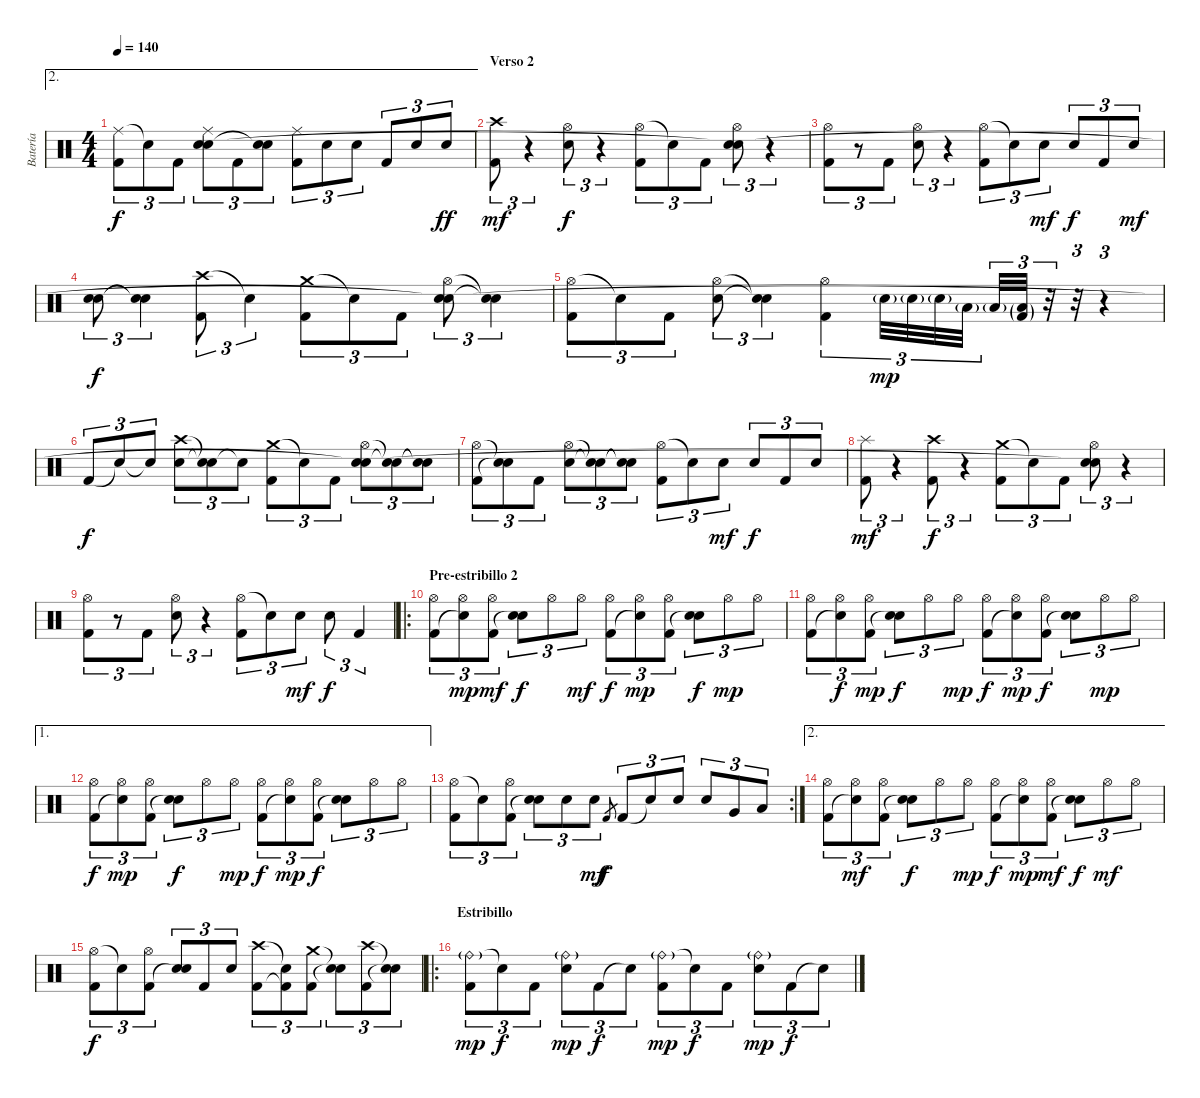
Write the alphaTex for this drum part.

\track ("Batería" "Batería") {instrument percussion}
\staff {score}
\articulation defaults
\ae 2
\ts (4 4)
\tempo 140
\clef neutral
\ks c
("Ride (middle)" "Kick (hit) 2").8{tu (3 2) dy f} "Snare (hit)"{t}.8{tu (3 2)} "Kick (hit) 2".8{tu (3 2)} ("Ride (middle)" "Snare (hit) 2" "Snare (hit)"{t}).8{tu (3 2)} "Kick (hit) 2".8{tu (3 2)} ("Snare (hit) 2" "Snare (hit)"{t}).8{tu (3 2)} ("Ride (middle)" "Kick (hit) 2").8{tu (3 2)} "Snare (hit) 2".8{tu (3 2)} "Snare (hit) 2".8{tu (3 2)} "Kick (hit) 2".8{tu (3 2)} "Snare (hit) 2".8{tu (3 2)} "Snare (hit) 2".8{tu (3 2) dy ff} |
\section ("" "Verso 2")
("Crash high (hit)" "Kick (hit) 2").8{tu (3 2) dy mf} r.4{tu (3 2)} ("Hi-Hat (open)" "Snare (hit) 2").8{tu (3 2) dy f} r.4{tu (3 2)} ("Hi-Hat (open)" "Kick (hit) 2").8{tu (3 2)} "Snare (hit)"{t}.8{tu (3 2)} "Kick (hit) 2".8{tu (3 2)} ("Hi-Hat (open)" "Snare (hit) 2" "Snare (hit)"{t}).8{tu (3 2)} r.4{tu (3 2)} |
("Hi-Hat (open)" "Kick (hit) 2").8{tu (3 2)} r.8{tu (3 2)} "Kick (hit) 2".8{tu (3 2)} ("Hi-Hat (open)" "Snare (hit) 2").8{tu (3 2)} r.4{tu (3 2)} ("Hi-Hat (open)" "Kick (hit) 2").8{tu (3 2)} "Snare (hit)"{t}.8{tu (3 2)} "Snare (hit) 2".8{tu (3 2) dy mf} "Snare (hit) 2".8{tu (3 2) dy f} "Kick (hit) 2".8{tu (3 2)} "Snare (hit) 2".8{tu (3 2) dy mf} |
("Snare (hit) 2" "Snare (hit) 2").8{tu (3 2) dy f} ("Snare (hit)"{t} "Snare (hit)"{t}).4{tu (3 2)} ("Crash high (hit)" "Kick (hit) 2").8{tu (3 2)} "Snare (hit)"{t}.4{tu (3 2)} ("Crash medium (hit)" "Kick (hit) 2").8{tu (3 2)} "Snare (hit)"{t}.8{tu (3 2)} "Kick (hit) 2".8{tu (3 2)} ("Hi-Hat (open)" "Snare (hit) 2" "Snare (hit)"{t}).8{tu (3 2)} ("Snare (hit)"{t} "Snare (hit)"{t}).4{tu (3 2)} |
("Hi-Hat (open)" "Kick (hit) 2").8{tu (3 2)} "Snare (hit)"{t}.8{tu (3 2)} "Kick (hit) 2".8{tu (3 2)} ("Hi-Hat (open)" "Snare (hit) 2").8{tu (3 2)} ("Snare (hit)"{t} "Snare (hit)"{t}).4{tu (3 2)} ("Hi-Hat (open)" "Kick (hit) 2").4{tu (3 2)} "Snare (hit) 2"{g}.32{tu (3 2) dy mp} "Snare (hit) 2"{g}.32{tu (3 2)} "Snare (hit) 2"{g}.32{tu (3 2)} "Low Floor Tom (hit)"{g}.32{tu (3 2)} "Low Floor Tom (hit)"{g}.32{tu (3 2)} ("Low Floor Tom (hit)"{g} "Kick (hit) 2"{g}).32{tu (3 2)} r.32{tu (3 2)} r.32{tu (3 2)} r.4{tu (3 2)} |
"Kick (hit) 2".8{tu (3 2) dy f} "Snare (hit)"{t}.8{tu (3 2)} "Snare (hit)"{t}.8{tu (3 2)} ("Crash high (hit)" "Snare (hit) 2").8{tu (3 2)} ("Snare (hit)"{t} "Snare (hit)"{t}).8{tu (3 2)} "Snare (hit)"{t}.8{tu (3 2)} ("Crash medium (hit)" "Kick (hit) 2").8{tu (3 2)} "Snare (hit)"{t}.8{tu (3 2)} "Kick (hit) 2".8{tu (3 2)} ("Hi-Hat (open)" "Snare (hit) 2" "Snare (hit)"{t}).8{tu (3 2)} ("Snare (hit)"{t} "Snare (hit)"{t}).8{tu (3 2)} ("Snare (hit)"{t} "Snare (hit)"{t}).8{tu (3 2)} |
("Hi-Hat (open)" "Kick (hit) 2").8{tu (3 2)} ("Snare (hit)"{t} "Snare (hit)"{t}).8{tu (3 2)} "Kick (hit) 2".8{tu (3 2)} ("Hi-Hat (open)" "Snare (hit) 2").8{tu (3 2)} ("Snare (hit)"{t} "Snare (hit)"{t}).8{tu (3 2)} ("Snare (hit)"{t} "Snare (hit)"{t}).8{tu (3 2)} ("Hi-Hat (open)" "Kick (hit) 2").8{tu (3 2)} "Snare (hit)"{t}.8{tu (3 2)} "Snare (hit) 2".8{tu (3 2) dy mf} "Snare (hit) 2".8{tu (3 2) dy f} "Kick (hit) 2".8{tu (3 2)} "Snare (hit) 2".8{tu (3 2)} |
("Splash (hit)" "Kick (hit) 2").8{tu (3 2) dy mf} r.4{tu (3 2)} ("Crash high (hit)" "Kick (hit) 2").8{tu (3 2) dy f} r.4{tu (3 2)} ("Crash medium (hit)" "Kick (hit) 2").8{tu (3 2)} "Snare (hit)"{t}.8{tu (3 2)} "Kick (hit) 2".8{tu (3 2)} ("Hi-Hat (open)" "Snare (hit) 2" "Snare (hit)"{t}).8{tu (3 2)} r.4{tu (3 2)} |
("Hi-Hat (open)" "Kick (hit) 2").8{tu (3 2)} r.8{tu (3 2)} "Kick (hit) 2".8{tu (3 2)} ("Hi-Hat (open)" "Snare (hit) 2").8{tu (3 2)} r.4{tu (3 2)} ("Hi-Hat (open)" "Kick (hit) 2").8{tu (3 2)} "Snare (hit)"{t}.8{tu (3 2)} "Snare (hit) 2".8{tu (3 2) dy mf} "Snare (hit) 2".8{tu (3 2) dy f} "Kick (hit) 2".4{tu (3 2)} |
\ro
\section ("" "Pre-estribillo 2")
("Hi-Hat (open)" "Kick (hit) 2").8{tu (3 2)} ("Hi-Hat (open)" "Snare (hit)"{t}).8{tu (3 2) dy mp} ("Hi-Hat (open)" "Kick (hit) 2").8{tu (3 2) dy mf} ("Snare (hit) 2" "Snare (hit)"{t}).8{tu (3 2) dy f} "Hi-Hat (open)".8{tu (3 2)} "Hi-Hat (open)".8{tu (3 2) dy mf} ("Hi-Hat (open)" "Kick (hit) 2").8{tu (3 2) dy f} ("Hi-Hat (open)" "Snare (hit)"{t}).8{tu (3 2) dy mp} ("Hi-Hat (open)" "Kick (hit) 2").8{tu (3 2)} ("Snare (hit) 2" "Snare (hit)"{t}).8{tu (3 2) dy f} "Hi-Hat (open)".8{tu (3 2) dy mp} "Hi-Hat (open)".8{tu (3 2)} |
("Hi-Hat (open)" "Kick (hit) 2").8{tu (3 2)} ("Hi-Hat (open)" "Snare (hit)"{t}).8{tu (3 2) dy f} ("Hi-Hat (open)" "Kick (hit) 2").8{tu (3 2) dy mp} ("Snare (hit) 2" "Snare (hit)"{t}).8{tu (3 2) dy f} "Hi-Hat (open)".8{tu (3 2)} "Hi-Hat (open)".8{tu (3 2) dy mp} ("Hi-Hat (open)" "Kick (hit) 2").8{tu (3 2) dy f} ("Hi-Hat (open)" "Snare (hit)"{t}).8{tu (3 2) dy mp} ("Hi-Hat (open)" "Kick (hit) 2").8{tu (3 2) dy f} ("Snare (hit) 2" "Snare (hit)"{t}).8{tu (3 2)} "Hi-Hat (open)".8{tu (3 2) dy mp} "Hi-Hat (open)".8{tu (3 2)} |
\ae 1
("Hi-Hat (open)" "Kick (hit) 2").8{tu (3 2) dy f} ("Hi-Hat (open)" "Snare (hit)"{t}).8{tu (3 2) dy mp} ("Hi-Hat (open)" "Kick (hit) 2").8{tu (3 2)} ("Snare (hit) 2" "Snare (hit)"{t}).8{tu (3 2) dy f} "Hi-Hat (open)".8{tu (3 2)} "Hi-Hat (open)".8{tu (3 2) dy mp} ("Hi-Hat (open)" "Kick (hit) 2").8{tu (3 2) dy f} ("Hi-Hat (open)" "Snare (hit)"{t}).8{tu (3 2) dy mp} ("Hi-Hat (open)" "Kick (hit) 2").8{tu (3 2) dy f} ("Snare (hit) 2" "Snare (hit)"{t}).8{tu (3 2)} "Hi-Hat (open)".8{tu (3 2)} "Hi-Hat (open)".8{tu (3 2)} |
\rc 2
("Hi-Hat (open)" "Kick (hit) 2").8{tu (3 2)} "Snare (hit)"{t}.8{tu (3 2)} ("Hi-Hat (open)" "Kick (hit) 2").8{tu (3 2)} ("Snare (hit) 2" "Snare (hit)"{t}).8{tu (3 2)} "Snare (hit) 2".8{tu (3 2)} "Snare (hit) 2".8{tu (3 2) dy mf} "Kick (hit) 2".8{gr dy f} "Kick (hit) 2".8{tu (3 2)} "Snare (hit)"{t}.8{tu (3 2)} "Snare (hit) 2".8{tu (3 2)} "Snare (hit) 2".8{tu (3 2)} "Very Low Tom (hit)".8{tu (3 2)} "Low Floor Tom (hit)".8{tu (3 2)} |
\ae 2
("Hi-Hat (open)" "Kick (hit) 2").8{tu (3 2)} ("Hi-Hat (open)" "Snare (hit)"{t}).8{tu (3 2) dy mf} ("Hi-Hat (open)" "Kick (hit) 2").8{tu (3 2)} ("Snare (hit) 2" "Snare (hit)"{t}).8{tu (3 2) dy f} "Hi-Hat (open)".8{tu (3 2)} "Hi-Hat (open)".8{tu (3 2) dy mp} ("Hi-Hat (open)" "Kick (hit) 2").8{tu (3 2) dy f} ("Hi-Hat (open)" "Snare (hit)"{t}).8{tu (3 2) dy mp} ("Hi-Hat (open)" "Kick (hit) 2").8{tu (3 2) dy mf} ("Snare (hit) 2" "Snare (hit)"{t}).8{tu (3 2) dy f} "Hi-Hat (open)".8{tu (3 2) dy mf} "Hi-Hat (open)".8{tu (3 2)} |
("Hi-Hat (open)" "Kick (hit) 2").8{tu (3 2) dy f} "Snare (hit)"{t}.8{tu (3 2)} ("Hi-Hat (open)" "Kick (hit) 2").8{tu (3 2)} ("Snare (hit) 2" "Snare (hit)"{t}).8{tu (3 2)} "Kick (hit) 2".8{tu (3 2)} "Snare (hit) 2".8{tu (3 2)} ("Crash high (hit)" "Kick (hit) 2").8{tu (3 2)} ("Snare (hit)"{t} "Kick (hit) 2"{t}).8{tu (3 2)} ("Crash medium (hit)" "Kick (hit) 2").8{tu (3 2)} ("Snare (hit)"{t} "Snare (hit)"{t}).8{tu (3 2)} ("Crash high (hit)" "Kick (hit) 2").8{tu (3 2)} ("Snare (hit)"{t} "Snare (hit)"{t}).8{tu (3 2)} |
\ro
\section ("" "Estribillo")
("Ride (bell)"{g} "Kick (hit) 2").8{tu (3 2) dy mp} "Snare (hit)"{t}.8{tu (3 2) dy f} "Kick (hit) 2".8{tu (3 2)} ("Ride (bell)"{g} "Snare (hit) 2").8{tu (3 2) dy mp} "Kick (hit) 2".8{tu (3 2) dy f} "Snare (hit)"{t}.8{tu (3 2)} ("Ride (bell)"{g} "Kick (hit) 2").8{tu (3 2) dy mp} "Snare (hit)"{t}.8{tu (3 2) dy f} "Kick (hit) 2".8{tu (3 2)} ("Ride (bell)"{g} "Snare (hit) 2").8{tu (3 2) dy mp} "Kick (hit) 2".8{tu (3 2) dy f} "Snare (hit)"{t}.8{tu (3 2)}
